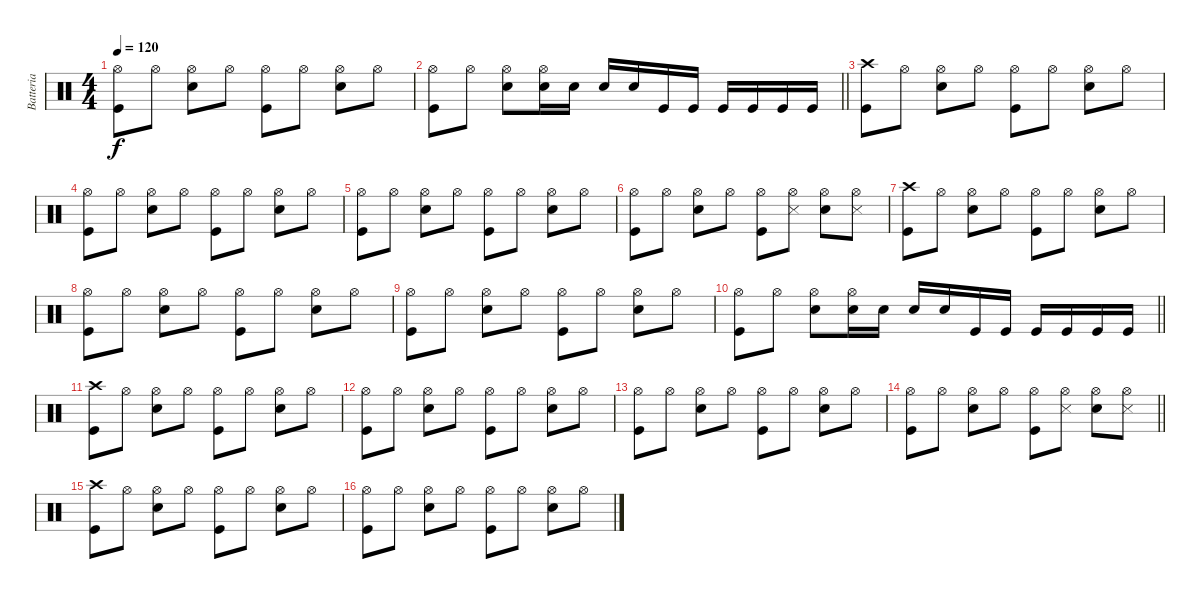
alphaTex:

\track ("Batteria" "Batteria") {instrument percussion}
\staff {score}
\articulation defaults
\ts (4 4)
\tempo 120
\clef neutral
\ks c
("Kick (hit)" "Hi-Hat (open)").8{dy f} "Hi-Hat (open)".8 ("Snare (hit) 2" "Hi-Hat (open)").8 "Hi-Hat (open)".8 ("Kick (hit)" "Hi-Hat (open)").8 "Hi-Hat (open)".8 ("Snare (hit) 2" "Hi-Hat (open)").8 "Hi-Hat (open)".8 |
\barLineRight lightlight
("Kick (hit)" "Hi-Hat (open)").8 "Hi-Hat (open)".8 ("Snare (hit) 2" "Hi-Hat (open)").8 ("Snare (hit) 2" "Hi-Hat (open)").16 "Snare (hit) 2".16 "Snare (hit) 2".16 "Snare (hit) 2".16 "Kick (hit)".16 "Kick (hit)".16 "Kick (hit)".16 "Kick (hit)".16 "Kick (hit)".16 "Kick (hit)".16 |
("Kick (hit)" "Crash high (hit)").8 "Hi-Hat (open)".8 ("Snare (hit) 2" "Hi-Hat (open)").8 "Hi-Hat (open)".8 ("Kick (hit)" "Hi-Hat (open)").8 "Hi-Hat (open)".8 ("Snare (hit) 2" "Hi-Hat (open)").8 "Hi-Hat (open)".8 |
("Kick (hit)" "Hi-Hat (open)").8 "Hi-Hat (open)".8 ("Snare (hit) 2" "Hi-Hat (open)").8 "Hi-Hat (open)".8 ("Kick (hit)" "Hi-Hat (open)").8 "Hi-Hat (open)".8 ("Snare (hit) 2" "Hi-Hat (open)").8 "Hi-Hat (open)".8 |
("Kick (hit)" "Hi-Hat (open)").8 "Hi-Hat (open)".8 ("Snare (hit) 2" "Hi-Hat (open)").8 "Hi-Hat (open)".8 ("Kick (hit)" "Hi-Hat (open)").8 "Hi-Hat (open)".8 ("Snare (hit) 2" "Hi-Hat (open)").8 "Hi-Hat (open)".8 |
("Kick (hit)" "Hi-Hat (open)").8 "Hi-Hat (open)".8 ("Snare (hit) 2" "Hi-Hat (open)").8 "Hi-Hat (open)".8 ("Kick (hit)" "Hi-Hat (open)").8 ("Hi-Hat (open)" "Snare (side stick) 3").8 ("Snare (hit) 2" "Hi-Hat (open)").8 ("Hi-Hat (open)" "Snare (side stick) 3").8 |
("Kick (hit)" "Crash high (hit)").8 "Hi-Hat (open)".8 ("Snare (hit) 2" "Hi-Hat (open)").8 "Hi-Hat (open)".8 ("Kick (hit)" "Hi-Hat (open)").8 "Hi-Hat (open)".8 ("Snare (hit) 2" "Hi-Hat (open)").8 "Hi-Hat (open)".8 |
("Kick (hit)" "Hi-Hat (open)").8 "Hi-Hat (open)".8 ("Snare (hit) 2" "Hi-Hat (open)").8 "Hi-Hat (open)".8 ("Kick (hit)" "Hi-Hat (open)").8 "Hi-Hat (open)".8 ("Snare (hit) 2" "Hi-Hat (open)").8 "Hi-Hat (open)".8 |
("Kick (hit)" "Hi-Hat (open)").8 "Hi-Hat (open)".8 ("Snare (hit) 2" "Hi-Hat (open)").8 "Hi-Hat (open)".8 ("Kick (hit)" "Hi-Hat (open)").8 "Hi-Hat (open)".8 ("Snare (hit) 2" "Hi-Hat (open)").8 "Hi-Hat (open)".8 |
\barLineRight lightlight
("Kick (hit)" "Hi-Hat (open)").8 "Hi-Hat (open)".8 ("Snare (hit) 2" "Hi-Hat (open)").8 ("Snare (hit) 2" "Hi-Hat (open)").16 "Snare (hit) 2".16 "Snare (hit) 2".16 "Snare (hit) 2".16 "Kick (hit)".16 "Kick (hit)".16 "Kick (hit)".16 "Kick (hit)".16 "Kick (hit)".16 "Kick (hit)".16 |
("Kick (hit)" "Crash high (hit)").8 "Hi-Hat (open)".8 ("Snare (hit) 2" "Hi-Hat (open)").8 "Hi-Hat (open)".8 ("Kick (hit)" "Hi-Hat (open)").8 "Hi-Hat (open)".8 ("Snare (hit) 2" "Hi-Hat (open)").8 "Hi-Hat (open)".8 |
("Kick (hit)" "Hi-Hat (open)").8 "Hi-Hat (open)".8 ("Snare (hit) 2" "Hi-Hat (open)").8 "Hi-Hat (open)".8 ("Kick (hit)" "Hi-Hat (open)").8 "Hi-Hat (open)".8 ("Snare (hit) 2" "Hi-Hat (open)").8 "Hi-Hat (open)".8 |
("Kick (hit)" "Hi-Hat (open)").8 "Hi-Hat (open)".8 ("Snare (hit) 2" "Hi-Hat (open)").8 "Hi-Hat (open)".8 ("Kick (hit)" "Hi-Hat (open)").8 "Hi-Hat (open)".8 ("Snare (hit) 2" "Hi-Hat (open)").8 "Hi-Hat (open)".8 |
\barLineRight lightlight
("Kick (hit)" "Hi-Hat (open)").8 "Hi-Hat (open)".8 ("Snare (hit) 2" "Hi-Hat (open)").8 "Hi-Hat (open)".8 ("Kick (hit)" "Hi-Hat (open)").8 ("Hi-Hat (open)" "Snare (side stick) 3").8 ("Snare (hit) 2" "Hi-Hat (open)").8 ("Hi-Hat (open)" "Snare (side stick) 3").8 |
("Kick (hit)" "Crash high (hit)").8 "Hi-Hat (open)".8 ("Snare (hit) 2" "Hi-Hat (open)").8 "Hi-Hat (open)".8 ("Kick (hit)" "Hi-Hat (open)").8 "Hi-Hat (open)".8 ("Snare (hit) 2" "Hi-Hat (open)").8 "Hi-Hat (open)".8 |
("Kick (hit)" "Hi-Hat (open)").8 "Hi-Hat (open)".8 ("Snare (hit) 2" "Hi-Hat (open)").8 "Hi-Hat (open)".8 ("Kick (hit)" "Hi-Hat (open)").8 "Hi-Hat (open)".8 ("Snare (hit) 2" "Hi-Hat (open)").8 "Hi-Hat (open)".8
